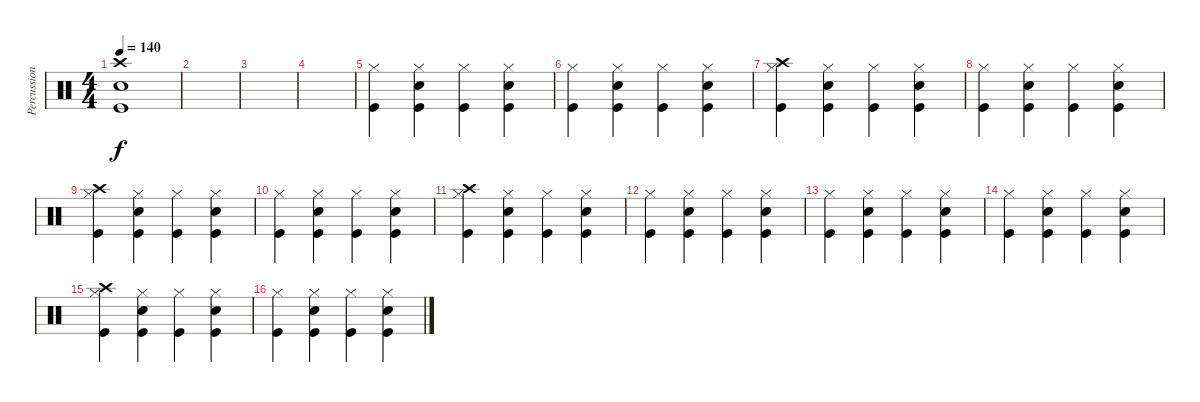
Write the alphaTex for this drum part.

\track ("Percussion" "Percussion") {instrument percussion}
\staff {score}
\articulation defaults
\ts (4 4)
\tempo 140
\clef neutral
\ks c
("Kick (hit)" "Electric Snare (hit)" "Crash high (hit)").1{dy f} |
|
|
|
("Kick (hit)" "Hi-Hat (closed)").4 ("Kick (hit)" "Electric Snare (hit)" "Hi-Hat (closed)").4 ("Kick (hit)" "Hi-Hat (closed)").4 ("Kick (hit)" "Electric Snare (hit)" "Hi-Hat (closed)").4 |
("Kick (hit)" "Hi-Hat (closed)").4 ("Kick (hit)" "Electric Snare (hit)" "Hi-Hat (closed)").4 ("Kick (hit)" "Hi-Hat (closed)").4 ("Kick (hit)" "Electric Snare (hit)" "Hi-Hat (closed)").4 |
("Crash high (hit)" "Kick (hit)" "Hi-Hat (closed)").4 ("Kick (hit)" "Electric Snare (hit)" "Hi-Hat (closed)").4 ("Kick (hit)" "Hi-Hat (closed)").4 ("Kick (hit)" "Electric Snare (hit)" "Hi-Hat (closed)").4 |
("Kick (hit)" "Hi-Hat (closed)").4 ("Kick (hit)" "Electric Snare (hit)" "Hi-Hat (closed)").4 ("Kick (hit)" "Hi-Hat (closed)").4 ("Kick (hit)" "Electric Snare (hit)" "Hi-Hat (closed)").4 |
("Crash high (hit)" "Kick (hit)" "Hi-Hat (closed)").4 ("Kick (hit)" "Electric Snare (hit)" "Hi-Hat (closed)").4 ("Kick (hit)" "Hi-Hat (closed)").4 ("Kick (hit)" "Electric Snare (hit)" "Hi-Hat (closed)").4 |
("Kick (hit)" "Hi-Hat (closed)").4 ("Kick (hit)" "Electric Snare (hit)" "Hi-Hat (closed)").4 ("Kick (hit)" "Hi-Hat (closed)").4 ("Kick (hit)" "Electric Snare (hit)" "Hi-Hat (closed)").4 |
("Kick (hit)" "Crash high (hit)" "Hi-Hat (closed)").4 ("Kick (hit)" "Electric Snare (hit)" "Hi-Hat (closed)").4 ("Kick (hit)" "Hi-Hat (closed)").4 ("Kick (hit)" "Electric Snare (hit)" "Hi-Hat (closed)").4 |
("Kick (hit)" "Hi-Hat (closed)").4 ("Kick (hit)" "Electric Snare (hit)" "Hi-Hat (closed)").4 ("Kick (hit)" "Hi-Hat (closed)").4 ("Kick (hit)" "Electric Snare (hit)" "Hi-Hat (closed)").4 |
("Kick (hit)" "Hi-Hat (closed)").4 ("Kick (hit)" "Electric Snare (hit)" "Hi-Hat (closed)").4 ("Kick (hit)" "Hi-Hat (closed)").4 ("Kick (hit)" "Electric Snare (hit)" "Hi-Hat (closed)").4 |
("Kick (hit)" "Hi-Hat (closed)").4 ("Kick (hit)" "Electric Snare (hit)" "Hi-Hat (closed)").4 ("Kick (hit)" "Hi-Hat (closed)").4 ("Kick (hit)" "Electric Snare (hit)" "Hi-Hat (closed)").4 |
("Crash high (hit)" "Kick (hit)" "Hi-Hat (closed)").4 ("Kick (hit)" "Electric Snare (hit)" "Hi-Hat (closed)").4 ("Kick (hit)" "Hi-Hat (closed)").4 ("Kick (hit)" "Electric Snare (hit)" "Hi-Hat (closed)").4 |
("Kick (hit)" "Hi-Hat (closed)").4 ("Kick (hit)" "Electric Snare (hit)" "Hi-Hat (closed)").4 ("Kick (hit)" "Hi-Hat (closed)").4 ("Kick (hit)" "Electric Snare (hit)" "Hi-Hat (closed)").4
